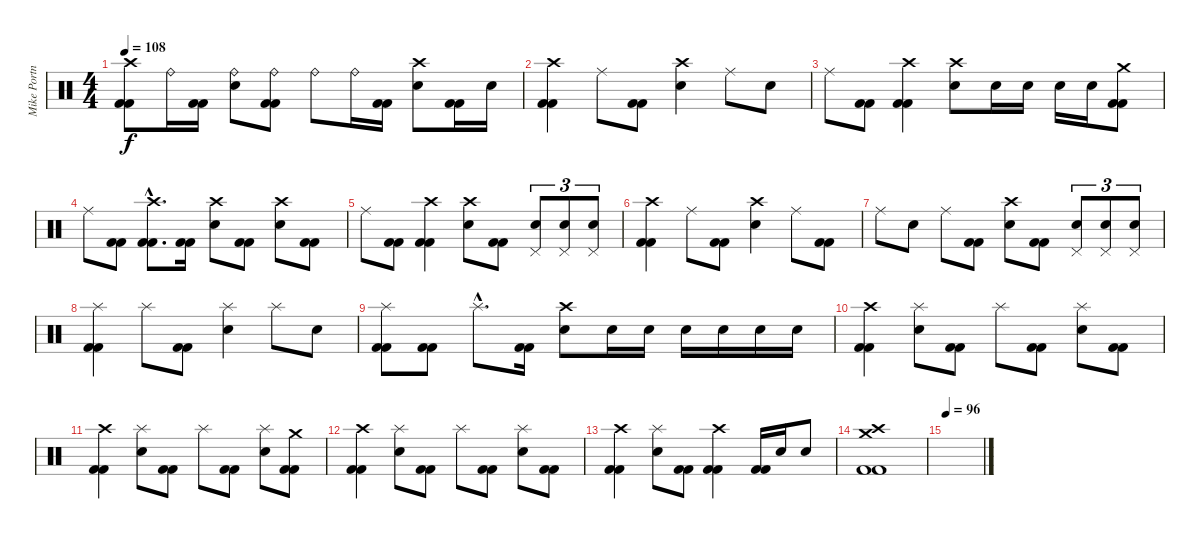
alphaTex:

\track ("Mike Portnoy - Drum" "Mike Portn") {instrument percussion}
\staff {score}
\articulation defaults
\ts (4 4)
\tempo 108
\clef neutral
\ks c
("Crash high (hit)" "Kick (hit) 2" "Kick (hit) 2").8{dy f} "Ride (bell)".16 ("Kick (hit) 2" "Kick (hit) 2").16 ("Ride (bell)" "Snare (hit) 2").8 ("Ride (bell)" "Kick (hit) 2" "Kick (hit) 2").8 "Ride (bell)".8 "Ride (bell)".16 ("Kick (hit) 2" "Kick (hit) 2").16 ("Crash high (hit)" "Snare (hit) 2").8 ("Kick (hit) 2" "Kick (hit) 2").16 "Snare (hit) 2".16 |
("Crash high (hit)" "Kick (hit) 2" "Kick (hit) 2").4 "Ride (middle)".8 ("Kick (hit) 2" "Kick (hit) 2").8 ("Crash high (hit)" "Snare (hit) 2").4 "Ride (middle)".8 "Snare (hit) 2".8 |
"Ride (middle)".8 ("Kick (hit) 2" "Kick (hit) 2").8 ("Crash high (hit)" "Kick (hit) 2" "Kick (hit) 2").4 ("Crash high (hit)" "Snare (hit) 2").8 "Snare (hit) 2".16 "Snare (hit) 2".16 "Snare (hit) 2".16 "Snare (hit) 2".16 ("Crash medium (hit)" "Kick (hit) 2" "Kick (hit) 2").8 |
"Ride (middle)".8 ("Kick (hit) 2" "Kick (hit) 2").8 ("Crash high (hit)"{hac} "Kick (hit) 2"{hac} "Kick (hit) 2"{hac}).8{d} ("Kick (hit) 2" "Kick (hit) 2").16 ("Crash high (hit)" "Snare (hit) 2").8 ("Kick (hit) 2" "Kick (hit) 2").8 ("Crash high (hit)" "Snare (hit) 2").8 ("Kick (hit) 2" "Kick (hit) 2").8 |
"Ride (middle)".8 ("Kick (hit) 2" "Kick (hit) 2").8 ("Crash high (hit)" "Kick (hit) 2" "Kick (hit) 2").4 ("Crash high (hit)" "Snare (hit) 2").8 ("Kick (hit) 2" "Kick (hit) 2").8 ("Pedal Hi-Hat (hit)" "Snare (hit) 2").8{tu (3 2)} ("Pedal Hi-Hat (hit)" "Snare (hit) 2").8{tu (3 2)} ("Pedal Hi-Hat (hit)" "Snare (hit) 2").8{tu (3 2)} |
("Crash high (hit)" "Kick (hit) 2" "Kick (hit) 2").4 "Ride (middle)".8 ("Kick (hit) 2" "Kick (hit) 2").8 ("Crash high (hit)" "Snare (hit) 2").4 "Ride (middle)".8 ("Kick (hit) 2" "Kick (hit) 2").8 |
"Ride (middle)".8 "Snare (hit) 2".8 "Ride (middle)".8 ("Kick (hit) 2" "Kick (hit) 2").8 ("Crash high (hit)" "Snare (hit) 2").8 ("Kick (hit) 2" "Kick (hit) 2").8 ("Pedal Hi-Hat (hit)" "Snare (hit) 2").8{tu (3 2)} ("Pedal Hi-Hat (hit)" "Snare (hit) 2").8{tu (3 2)} ("Pedal Hi-Hat (hit)" "Snare (hit) 2").8{tu (3 2)} |
("Splash (hit)" "Kick (hit) 2" "Kick (hit) 2").4 "Splash (hit)".8 ("Kick (hit) 2" "Kick (hit) 2").8 ("Splash (hit)" "Snare (hit) 2").4 "Splash (hit)".8 "Snare (hit) 2".8 |
("Splash (hit)" "Kick (hit) 2" "Kick (hit) 2").8 ("Kick (hit) 2" "Kick (hit) 2").8 "Splash (hit)"{hac}.8{d} ("Kick (hit) 2" "Kick (hit) 2").16 ("Crash high (hit)" "Snare (hit) 2").8 "Snare (hit) 2".16 "Snare (hit) 2".16 "Snare (hit) 2".16 "Snare (hit) 2".16 "Snare (hit) 2".16 "Snare (hit) 2".16 |
("Crash high (hit)" "Kick (hit) 2" "Kick (hit) 2").4 ("Splash (hit)" "Snare (hit) 2").8 ("Kick (hit) 2" "Kick (hit) 2").8 "Splash (hit)".8 ("Kick (hit) 2" "Kick (hit) 2").8 ("Splash (hit)" "Snare (hit) 2").8 ("Kick (hit) 2" "Kick (hit) 2").8 |
("Crash high (hit)" "Kick (hit) 2" "Kick (hit) 2").4 ("Splash (hit)" "Snare (hit) 2").8 ("Kick (hit) 2" "Kick (hit) 2").8 "Splash (hit)".8 ("Kick (hit) 2" "Kick (hit) 2").8 ("Splash (hit)" "Snare (hit) 2").8 ("Crash medium (hit)" "Kick (hit) 2" "Kick (hit) 2").8 |
("Crash high (hit)" "Kick (hit) 2" "Kick (hit) 2").4 ("Splash (hit)" "Snare (hit) 2").8 ("Kick (hit) 2" "Kick (hit) 2").8 "Splash (hit)".8 ("Kick (hit) 2" "Kick (hit) 2").8 ("Splash (hit)" "Snare (hit) 2").8 ("Kick (hit) 2" "Kick (hit) 2").8 |
("Crash high (hit)" "Kick (hit) 2" "Kick (hit) 2").4 ("Splash (hit)" "Snare (hit) 2").8 ("Kick (hit) 2" "Kick (hit) 2").8 ("Crash high (hit)" "Kick (hit) 2" "Kick (hit) 2").4 ("Kick (hit) 2" "Kick (hit) 2").16 "Snare (hit) 2".16 "Snare (hit) 2".8 |
("Crash high (hit)" "Crash medium (hit)" "Kick (hit) 2" "Kick (hit) 2").1 |
\tempo 96
